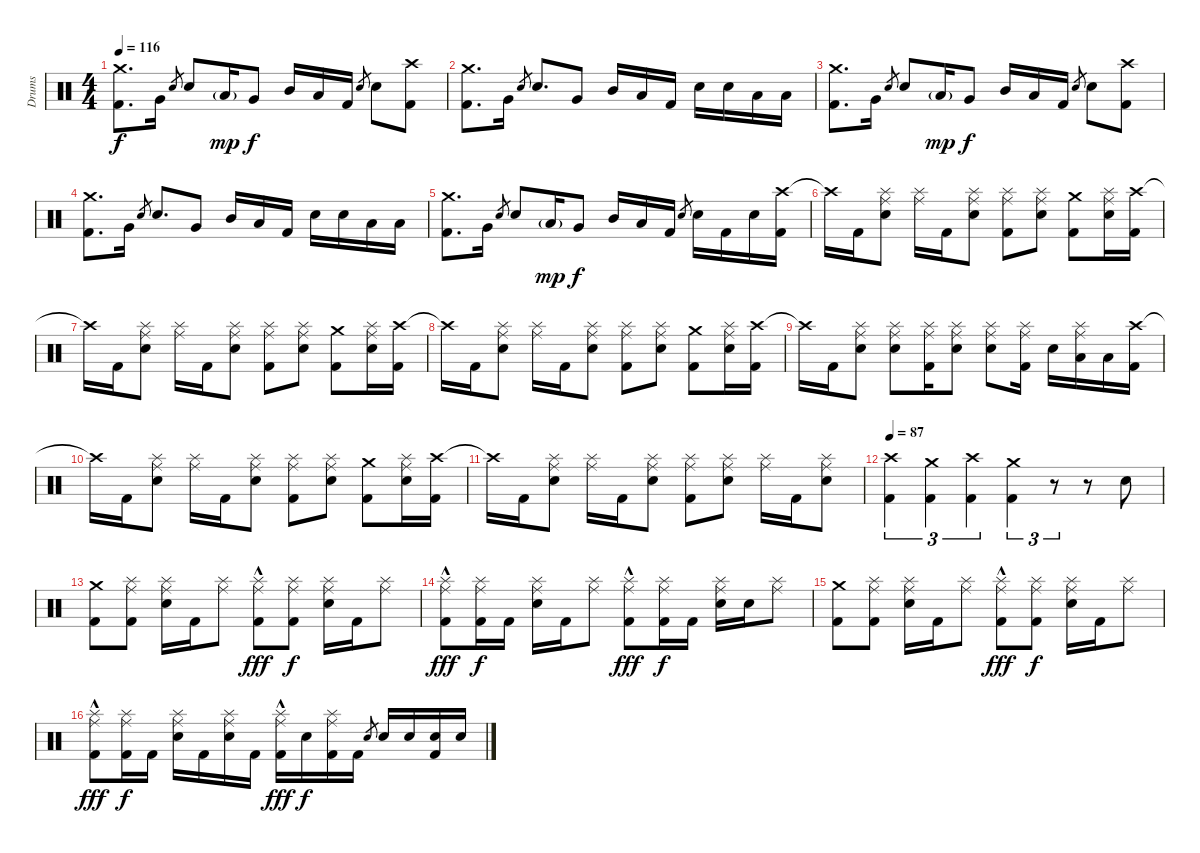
\track ("Drums" "Drums") {instrument percussion}
\staff {score}
\articulation defaults
\ts (4 4)
\tempo 116
\clef neutral
\ks c
("Crash medium (hit)" "Kick (hit) 2").8{d dy f} "Very Low Tom (hit)".16 "Electric Snare (hit)".8{gr} "Electric Snare (hit)".8 "Low Tom (hit)"{g}.16{dy mp} "Very Low Tom (hit)".8{dy f} "Mid Tom (hit)".16 "Low Tom (hit)".16 "Kick (hit) 2".16 "Electric Snare (hit)".8{gr} "Electric Snare (hit)".8 ("Crash high (hit)" "Kick (hit) 2").8 |
("Crash medium (hit)" "Kick (hit) 2").8{d} "Very Low Tom (hit)".16 "Electric Snare (hit)".8{gr} "Electric Snare (hit)".8{d} "Very Low Tom (hit)".8 "Mid Tom (hit)".16 "Low Tom (hit)".16 "Kick (hit) 2".16 "Electric Snare (hit)".16 "Electric Snare (hit)".16 "Low Tom (hit)".16 "Low Tom (hit)".16 |
("Crash medium (hit)" "Kick (hit) 2").8{d} "Very Low Tom (hit)".16 "Electric Snare (hit)".8{gr} "Electric Snare (hit)".8 "Low Tom (hit)"{g}.16{dy mp} "Very Low Tom (hit)".8{dy f} "Mid Tom (hit)".16 "Low Tom (hit)".16 "Kick (hit) 2".16 "Electric Snare (hit)".8{gr} "Electric Snare (hit)".8 ("Crash high (hit)" "Kick (hit) 2").8 |
("Crash medium (hit)" "Kick (hit) 2").8{d} "Very Low Tom (hit)".16 "Electric Snare (hit)".8{gr} "Electric Snare (hit)".8{d} "Very Low Tom (hit)".8 "Mid Tom (hit)".16 "Low Tom (hit)".16 "Kick (hit) 2".16 "Electric Snare (hit)".16 "Electric Snare (hit)".16 "Low Tom (hit)".16 "Low Tom (hit)".16 |
("Crash medium (hit)" "Kick (hit) 2").8{d} "Very Low Tom (hit)".16 "Electric Snare (hit)".8{gr} "Electric Snare (hit)".8 "Low Tom (hit)"{g}.16{dy mp} "Very Low Tom (hit)".8{dy f} "Mid Tom (hit)".16 "Low Tom (hit)".16 "Kick (hit) 2".16 "Electric Snare (hit)".8{gr} "Electric Snare (hit)".16 "Kick (hit) 2".16 "Electric Snare (hit)".16 ("Crash high (hit)" "Kick (hit) 2").16 |
"Crash high (hit)"{t}.16 "Kick (hit) 2".16 ("Ride (middle)" "Splash (hit)" "Electric Snare (hit)").8 ("Ride (middle)" "Splash (hit)").16 "Kick (hit) 2".16 ("Ride (middle)" "Splash (hit)" "Electric Snare (hit)").8 ("Ride (middle)" "Splash (hit)" "Kick (hit) 2").8 ("Ride (middle)" "Splash (hit)" "Electric Snare (hit)").8 ("Crash medium (hit)" "Kick (hit) 2").8 ("Ride (middle)" "Splash (hit)" "Electric Snare (hit)").16 ("Crash high (hit)" "Kick (hit) 2").16 |
"Crash high (hit)"{t}.16 "Kick (hit) 2".16 ("Ride (middle)" "Splash (hit)" "Electric Snare (hit)").8 ("Ride (middle)" "Splash (hit)").16 "Kick (hit) 2".16 ("Ride (middle)" "Splash (hit)" "Electric Snare (hit)").8 ("Ride (middle)" "Splash (hit)" "Kick (hit) 2").8 ("Ride (middle)" "Splash (hit)" "Electric Snare (hit)").8 ("Crash medium (hit)" "Kick (hit) 2").8 ("Ride (middle)" "Splash (hit)" "Electric Snare (hit)").16 ("Crash high (hit)" "Kick (hit) 2").16 |
"Crash high (hit)"{t}.16 "Kick (hit) 2".16 ("Ride (middle)" "Splash (hit)" "Electric Snare (hit)").8 ("Ride (middle)" "Splash (hit)").16 "Kick (hit) 2".16 ("Ride (middle)" "Splash (hit)" "Electric Snare (hit)").8 ("Ride (middle)" "Splash (hit)" "Kick (hit) 2").8 ("Ride (middle)" "Splash (hit)" "Electric Snare (hit)").8 ("Crash medium (hit)" "Kick (hit) 2").8 ("Ride (middle)" "Splash (hit)" "Electric Snare (hit)").16 ("Crash high (hit)" "Kick (hit) 2").16 |
"Crash high (hit)"{t}.16 "Kick (hit) 2".16 ("Ride (middle)" "Splash (hit)" "Electric Snare (hit)").8 ("Ride (middle)" "Splash (hit)" "Electric Snare (hit)").8 ("Ride (middle)" "Splash (hit)" "Kick (hit) 2").16 ("Ride (middle)" "Splash (hit)" "Electric Snare (hit)").8 ("Ride (middle)" "Splash (hit)" "Electric Snare (hit)").8 ("Ride (middle)" "Splash (hit)" "Kick (hit) 2").16 "Electric Snare (hit)".16 ("Ride (middle)" "Splash (hit)" "Low Tom (hit)").16 "Low Tom (hit)".16 ("Crash high (hit)" "Kick (hit) 2").16 |
"Crash high (hit)"{t}.16 "Kick (hit) 2".16 ("Ride (middle)" "Splash (hit)" "Electric Snare (hit)").8 ("Ride (middle)" "Splash (hit)").16 "Kick (hit) 2".16 ("Ride (middle)" "Splash (hit)" "Electric Snare (hit)").8 ("Ride (middle)" "Splash (hit)" "Kick (hit) 2").8 ("Ride (middle)" "Splash (hit)" "Electric Snare (hit)").8 ("Crash medium (hit)" "Kick (hit) 2").8 ("Ride (middle)" "Splash (hit)" "Electric Snare (hit)").16 ("Crash high (hit)" "Kick (hit) 2").16 |
"Crash high (hit)"{t}.16 "Kick (hit) 2".16 ("Ride (middle)" "Splash (hit)" "Electric Snare (hit)").8 ("Ride (middle)" "Splash (hit)").16 "Kick (hit) 2".16 ("Ride (middle)" "Splash (hit)" "Electric Snare (hit)").8 ("Ride (middle)" "Splash (hit)" "Kick (hit) 2").8 ("Ride (middle)" "Splash (hit)" "Electric Snare (hit)").8 ("Ride (middle)" "Splash (hit)").16 "Kick (hit) 2".16 ("Ride (middle)" "Splash (hit)" "Electric Snare (hit)").8 |
\tempo 87
("Crash high (hit)" "Kick (hit) 2").4{tu (3 2)} ("Crash medium (hit)" "Kick (hit) 2").4{tu (3 2)} ("Crash high (hit)" "Kick (hit) 2").4{tu (3 2)} ("Crash medium (hit)" "Kick (hit) 2").4{tu (3 2)} r.8{tu (3 2)} r.8 "Electric Snare (hit)".8 |
("Crash medium (hit)" "Kick (hit) 2").8 ("Ride (middle)" "Splash (hit)" "Kick (hit) 2").8 ("Ride (middle)" "Splash (hit)" "Electric Snare (hit)").16 "Kick (hit) 2".16 ("Ride (middle)" "Splash (hit)").8 ("Ride (middle)" "Splash (hit)"{hac} "Kick (hit) 2").8{dy fff} ("Ride (middle)" "Splash (hit)" "Kick (hit) 2").8{dy f} ("Ride (middle)" "Splash (hit)" "Electric Snare (hit)").16 "Kick (hit) 2".16 ("Ride (middle)" "Splash (hit)").8 |
("Ride (middle)" "Splash (hit)"{hac} "Kick (hit) 2").8{dy fff} ("Ride (middle)" "Splash (hit)" "Kick (hit) 2").16{dy f} "Kick (hit) 2".16 ("Ride (middle)" "Splash (hit)" "Electric Snare (hit)").16 "Kick (hit) 2".16 ("Ride (middle)" "Splash (hit)").8 ("Ride (middle)" "Splash (hit)"{hac} "Kick (hit) 2").8{dy fff} ("Ride (middle)" "Splash (hit)" "Kick (hit) 2").16{dy f} "Kick (hit) 2".16 ("Ride (middle)" "Splash (hit)" "Electric Snare (hit)").16 "Electric Snare (hit)".16 ("Ride (middle)" "Splash (hit)").8 |
("Crash medium (hit)" "Kick (hit) 2").8 ("Ride (middle)" "Splash (hit)" "Kick (hit) 2").8 ("Ride (middle)" "Splash (hit)" "Electric Snare (hit)").16 "Kick (hit) 2".16 ("Ride (middle)" "Splash (hit)").8 ("Ride (middle)" "Splash (hit)"{hac} "Kick (hit) 2").8{dy fff} ("Ride (middle)" "Splash (hit)" "Kick (hit) 2").8{dy f} ("Ride (middle)" "Splash (hit)" "Electric Snare (hit)").16 "Kick (hit) 2".16 ("Ride (middle)" "Splash (hit)").8 |
("Ride (middle)" "Splash (hit)"{hac} "Kick (hit) 2").8{dy fff} ("Ride (middle)" "Splash (hit)" "Kick (hit) 2").16{dy f} "Kick (hit) 2".16 ("Ride (middle)" "Splash (hit)" "Electric Snare (hit)").16 "Kick (hit) 2".16 ("Ride (middle)" "Splash (hit)" "Electric Snare (hit)").16 "Kick (hit) 2".16 ("Ride (middle)" "Splash (hit)"{hac} "Kick (hit) 2").16{dy fff} "Electric Snare (hit)".16{dy f} ("Ride (middle)" "Splash (hit)" "Kick (hit) 2").16 "Kick (hit) 2".16 "Electric Snare (hit)".8{gr} "Electric Snare (hit)".16 "Electric Snare (hit)".16 ("Electric Snare (hit)" "Kick (hit) 2").16 "Electric Snare (hit)".16
